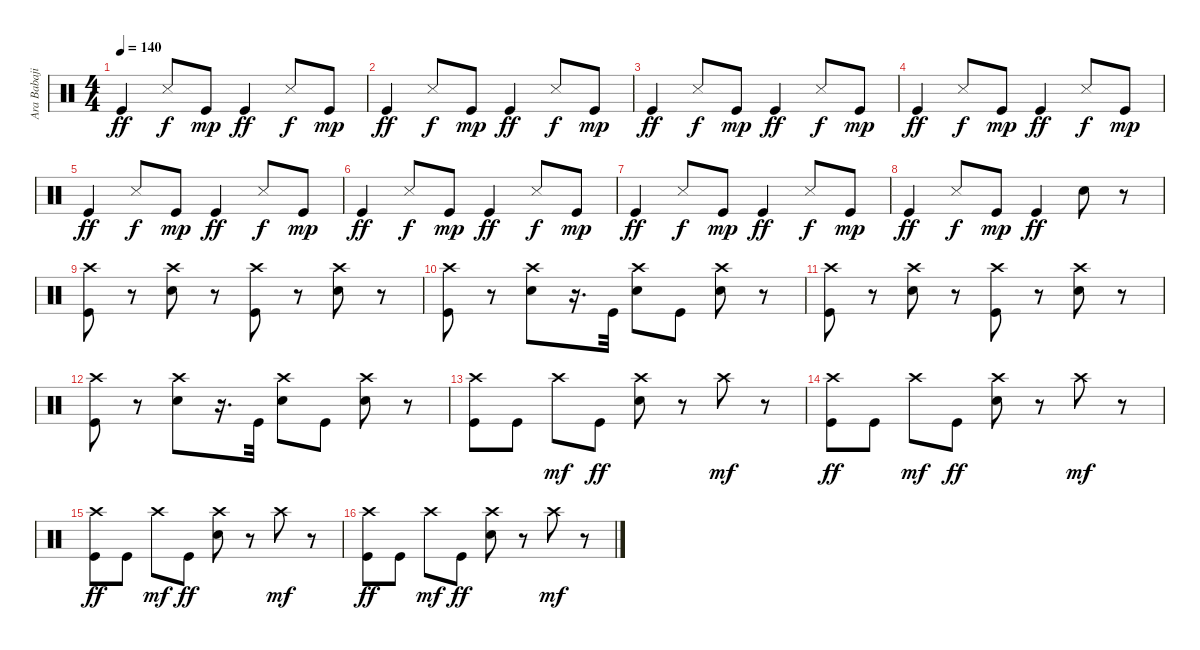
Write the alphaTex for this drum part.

\track ("Ara Babajian Drums" "Ara Babaji") {instrument percussion}
\staff {score}
\articulation defaults
\ts (4 4)
\tempo 140
\clef neutral
\ks c "Kick (hit)".4{dy ff} "Snare (side stick) 3".8{dy f} "Kick (hit)".8{dy mp} "Kick (hit)".4{dy ff} "Snare (side stick) 3".8{dy f} "Kick (hit)".8{dy mp}
|
"Kick (hit)".4{dy ff} "Snare (side stick) 3".8{dy f} "Kick (hit)".8{dy mp} "Kick (hit)".4{dy ff} "Snare (side stick) 3".8{dy f} "Kick (hit)".8{dy mp} |
"Kick (hit)".4{dy ff} "Snare (side stick) 3".8{dy f} "Kick (hit)".8{dy mp} "Kick (hit)".4{dy ff} "Snare (side stick) 3".8{dy f} "Kick (hit)".8{dy mp} |
"Kick (hit)".4{dy ff} "Snare (side stick) 3".8{dy f} "Kick (hit)".8{dy mp} "Kick (hit)".4{dy ff} "Snare (side stick) 3".8{dy f} "Kick (hit)".8{dy mp} |
"Kick (hit)".4{dy ff} "Snare (side stick) 3".8{dy f} "Kick (hit)".8{dy mp} "Kick (hit)".4{dy ff} "Snare (side stick) 3".8{dy f} "Kick (hit)".8{dy mp} |
"Kick (hit)".4{dy ff} "Snare (side stick) 3".8{dy f} "Kick (hit)".8{dy mp} "Kick (hit)".4{dy ff} "Snare (side stick) 3".8{dy f} "Kick (hit)".8{dy mp} |
"Kick (hit)".4{dy ff} "Snare (side stick) 3".8{dy f} "Kick (hit)".8{dy mp} "Kick (hit)".4{dy ff} "Snare (side stick) 3".8{dy f} "Kick (hit)".8{dy mp} |
"Kick (hit)".4{dy ff} "Snare (side stick) 3".8{dy f} "Kick (hit)".8{dy mp} "Kick (hit)".4{dy ff} "Snare (hit) 2".8 r.8 |
("Crash high (hit)" "Kick (hit)").8 r.8 ("Crash high (hit)" "Snare (hit) 2").8 r.8 ("Crash high (hit)" "Kick (hit)").8 r.8 ("Crash high (hit)" "Snare (hit) 2").8 r.8 |
("Crash high (hit)" "Kick (hit)").8 r.8 ("Crash high (hit)" "Snare (hit) 2").8 r.16{d} "Kick (hit)".32 ("Crash high (hit)" "Snare (hit) 2").8 "Kick (hit)".8 ("Crash high (hit)" "Snare (hit) 2").8 r.8 |
("Crash high (hit)" "Kick (hit)").8 r.8 ("Crash high (hit)" "Snare (hit) 2").8 r.8 ("Crash high (hit)" "Kick (hit)").8 r.8 ("Crash high (hit)" "Snare (hit) 2").8 r.8 |
("Crash high (hit)" "Kick (hit)").8 r.8 ("Crash high (hit)" "Snare (hit) 2").8 r.16{d} "Kick (hit)".32 ("Crash high (hit)" "Snare (hit) 2").8 "Kick (hit)".8 ("Crash high (hit)" "Snare (hit) 2").8 r.8 |
("Crash high (hit)" "Kick (hit)").8 "Kick (hit)".8 "Crash high (hit)".8{dy mf} "Kick (hit)".8{dy ff} ("Crash high (hit)" "Snare (hit) 2").8 r.8 "Crash high (hit)".8{dy mf} r.8 |
("Crash high (hit)" "Kick (hit)").8{dy ff} "Kick (hit)".8 "Crash high (hit)".8{dy mf} "Kick (hit)".8{dy ff} ("Crash high (hit)" "Snare (hit) 2").8 r.8 "Crash high (hit)".8{dy mf} r.8 |
("Crash high (hit)" "Kick (hit)").8{dy ff} "Kick (hit)".8 "Crash high (hit)".8{dy mf} "Kick (hit)".8{dy ff} ("Crash high (hit)" "Snare (hit) 2").8 r.8 "Crash high (hit)".8{dy mf} r.8 |
("Crash high (hit)" "Kick (hit)").8{dy ff} "Kick (hit)".8 "Crash high (hit)".8{dy mf} "Kick (hit)".8{dy ff} ("Crash high (hit)" "Snare (hit) 2").8 r.8 "Crash high (hit)".8{dy mf} r.8
